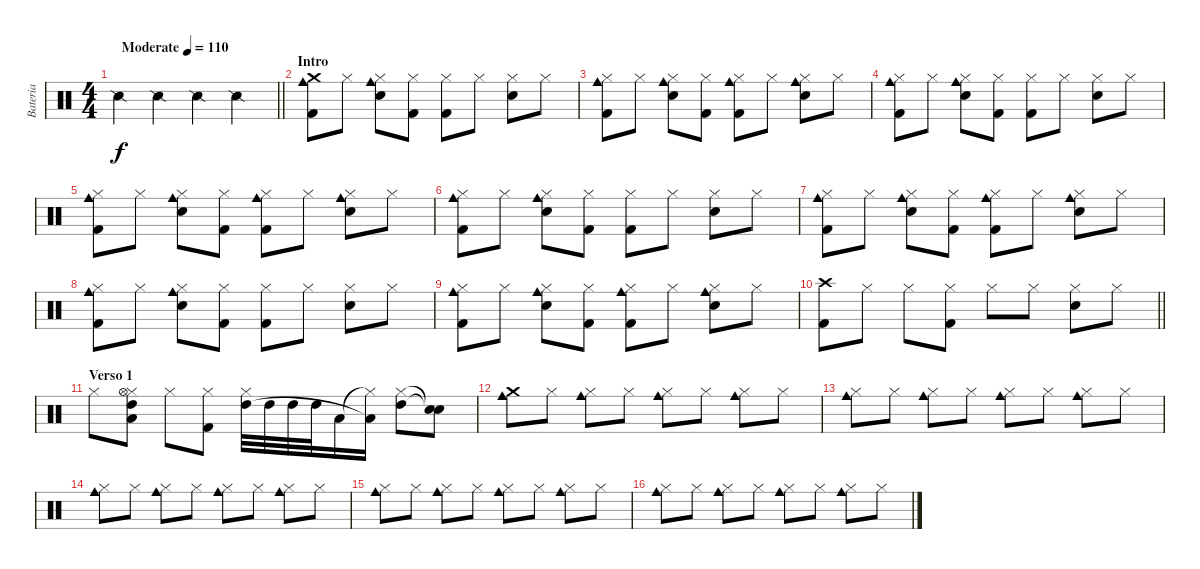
\track ("Bateria" "Bateria") {instrument percussion}
\staff {score}
\articulation defaults
\ts (4 4)
\tempo (110 "Moderate")
\clef neutral
\barLineRight lightlight
\ks c "Snare (side stick) 2".4{dy f} "Snare (side stick) 2".4 "Snare (side stick) 2".4 "Snare (side stick) 2".4
|
\section ("" "Intro")
("Crash medium (hit)" "Cowbell medium (hit)" "Kick (hit) 2").8 "Hi-Hat (closed)".8 ("Hi-Hat (closed)" "Electric Snare (hit)" "Cowbell medium (hit)").8 ("Hi-Hat (closed)" "Kick (hit) 2").8 ("Hi-Hat (closed)" "Kick (hit) 2").8 "Hi-Hat (closed)".8 ("Hi-Hat (closed)" "Electric Snare (hit)").8 "Hi-Hat (closed)".8 |
("Hi-Hat (closed)" "Cowbell medium (hit)" "Kick (hit) 2").8 "Hi-Hat (closed)".8 ("Hi-Hat (closed)" "Electric Snare (hit)" "Cowbell medium (hit)").8 ("Hi-Hat (closed)" "Kick (hit) 2").8 ("Hi-Hat (closed)" "Cowbell medium (hit)" "Kick (hit) 2").8 "Hi-Hat (closed)".8 ("Hi-Hat (closed)" "Electric Snare (hit)" "Cowbell medium (hit)").8 "Hi-Hat (closed)".8 |
("Hi-Hat (closed)" "Cowbell medium (hit)" "Kick (hit) 2").8 "Hi-Hat (closed)".8 ("Hi-Hat (closed)" "Electric Snare (hit)" "Cowbell medium (hit)").8 ("Hi-Hat (closed)" "Kick (hit) 2").8 ("Hi-Hat (closed)" "Kick (hit) 2").8 "Hi-Hat (closed)".8 ("Hi-Hat (closed)" "Electric Snare (hit)").8 "Hi-Hat (closed)".8 |
("Hi-Hat (closed)" "Cowbell medium (hit)" "Kick (hit) 2").8 "Hi-Hat (closed)".8 ("Hi-Hat (closed)" "Electric Snare (hit)" "Cowbell medium (hit)").8 ("Hi-Hat (closed)" "Kick (hit) 2").8 ("Hi-Hat (closed)" "Cowbell medium (hit)" "Kick (hit) 2").8 "Hi-Hat (closed)".8 ("Hi-Hat (closed)" "Electric Snare (hit)" "Cowbell medium (hit)").8 "Hi-Hat (closed)".8 |
("Hi-Hat (closed)" "Cowbell medium (hit)" "Kick (hit) 2").8 "Hi-Hat (closed)".8 ("Hi-Hat (closed)" "Electric Snare (hit)" "Cowbell medium (hit)").8 ("Hi-Hat (closed)" "Kick (hit) 2").8 ("Hi-Hat (closed)" "Kick (hit) 2").8 "Hi-Hat (closed)".8 ("Hi-Hat (closed)" "Electric Snare (hit)").8 "Hi-Hat (closed)".8 |
("Hi-Hat (closed)" "Cowbell medium (hit)" "Kick (hit) 2").8 "Hi-Hat (closed)".8 ("Hi-Hat (closed)" "Electric Snare (hit)" "Cowbell medium (hit)").8 ("Hi-Hat (closed)" "Kick (hit) 2").8 ("Hi-Hat (closed)" "Cowbell medium (hit)" "Kick (hit) 2").8 "Hi-Hat (closed)".8 ("Hi-Hat (closed)" "Electric Snare (hit)" "Cowbell medium (hit)").8 "Hi-Hat (closed)".8 |
("Hi-Hat (closed)" "Cowbell medium (hit)" "Kick (hit) 2").8 "Hi-Hat (closed)".8 ("Hi-Hat (closed)" "Electric Snare (hit)" "Cowbell medium (hit)").8 ("Hi-Hat (closed)" "Kick (hit) 2").8 ("Hi-Hat (closed)" "Kick (hit) 2").8 "Hi-Hat (closed)".8 ("Hi-Hat (closed)" "Electric Snare (hit)").8 "Hi-Hat (closed)".8 |
("Hi-Hat (closed)" "Cowbell medium (hit)" "Kick (hit) 2").8 "Hi-Hat (closed)".8 ("Hi-Hat (closed)" "Electric Snare (hit)" "Cowbell medium (hit)").8 ("Hi-Hat (closed)" "Kick (hit) 2").8 ("Hi-Hat (closed)" "Cowbell medium (hit)" "Kick (hit) 2").8 "Hi-Hat (closed)".8 ("Hi-Hat (closed)" "Electric Snare (hit)" "Cowbell medium (hit)").8 "Hi-Hat (closed)".8 |
\barLineRight lightlight
("Crash high (hit)" "Kick (hit) 2").8 "Hi-Hat (closed)".8 "Hi-Hat (closed)".8 ("Hi-Hat (closed)" "Kick (hit) 2").8 "Hi-Hat (closed)".8 "Hi-Hat (closed)".8 ("Hi-Hat (closed)" "Electric Snare (hit)").8 "Hi-Hat (closed)".8 |
\section ("" "Verso 1")
"Hi-Hat (closed)".8 ("Hi-Hat (closed)" "High Tom (hit)" "Low Tom (hit)" "Hi-Hat (open)").8 "Hi-Hat (closed)".8 ("Hi-Hat (closed)" "Kick (hit) 2").8 ("Hi-Hat (closed)" "High Tom (hit)").32 "High Tom (hit)".32 "High Tom (hit)".32 "High Tom (hit)".32 "Low Tom (hit)".16 ("Hi-Hat (closed)"{t} "Low Tom (hit)"{t}).16 ("Hi-Hat (closed)" "High Tom (hit)").8 ("Snare (hit)"{t} "Snare (hit)"{t}).8 |
("Crash medium (hit)" "Cowbell medium (hit)").8 "Hi-Hat (closed)".8 ("Hi-Hat (closed)" "Cowbell medium (hit)").8 "Hi-Hat (closed)".8 ("Hi-Hat (closed)" "Cowbell medium (hit)").8 "Hi-Hat (closed)".8 ("Hi-Hat (closed)" "Cowbell medium (hit)").8 "Hi-Hat (closed)".8 |
("Hi-Hat (closed)" "Cowbell medium (hit)").8 "Hi-Hat (closed)".8 ("Hi-Hat (closed)" "Cowbell medium (hit)").8 "Hi-Hat (closed)".8 ("Hi-Hat (closed)" "Cowbell medium (hit)").8 "Hi-Hat (closed)".8 ("Hi-Hat (closed)" "Cowbell medium (hit)").8 "Hi-Hat (closed)".8 |
("Hi-Hat (closed)" "Cowbell medium (hit)").8 "Hi-Hat (closed)".8 ("Hi-Hat (closed)" "Cowbell medium (hit)").8 "Hi-Hat (closed)".8 ("Hi-Hat (closed)" "Cowbell medium (hit)").8 "Hi-Hat (closed)".8 ("Hi-Hat (closed)" "Cowbell medium (hit)").8 "Hi-Hat (closed)".8 |
("Hi-Hat (closed)" "Cowbell medium (hit)").8 "Hi-Hat (closed)".8 ("Hi-Hat (closed)" "Cowbell medium (hit)").8 "Hi-Hat (closed)".8 ("Hi-Hat (closed)" "Cowbell medium (hit)").8 "Hi-Hat (closed)".8 ("Hi-Hat (closed)" "Cowbell medium (hit)").8 "Hi-Hat (closed)".8 |
("Hi-Hat (closed)" "Cowbell medium (hit)").8 "Hi-Hat (closed)".8 ("Hi-Hat (closed)" "Cowbell medium (hit)").8 "Hi-Hat (closed)".8 ("Hi-Hat (closed)" "Cowbell medium (hit)").8 "Hi-Hat (closed)".8 ("Hi-Hat (closed)" "Cowbell medium (hit)").8 "Hi-Hat (closed)".8
